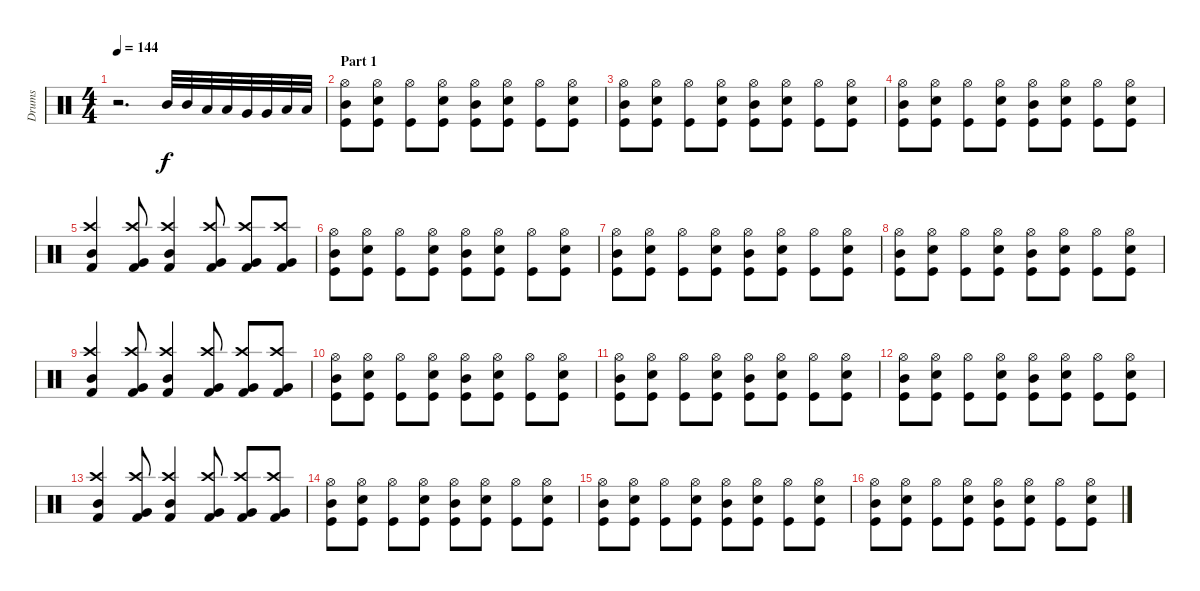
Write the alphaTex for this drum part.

\track ("Drums" "Drums") {instrument percussion}
\staff {score}
\articulation defaults
\ts (4 4)
\tempo 144
\clef neutral
\ks c
r.2{d dy f} "Mid Tom (hit)".32 "Mid Tom (hit)".32 "Low Tom (hit)".32 "Low Tom (hit)".32 "Very Low Tom (hit)".32 "Very Low Tom (hit)".32 "Low Floor Tom (hit)".32 "Low Floor Tom (hit)".32 |
\section ("" "Part 1")
("Hi-Hat (open)" "Kick (hit)" "Mid Tom (hit)").8 ("Hi-Hat (open)" "Kick (hit)" "Snare (hit) 2").8 ("Hi-Hat (open)" "Kick (hit)").8 ("Hi-Hat (open)" "Kick (hit)" "Snare (hit) 2").8 ("Hi-Hat (open)" "Kick (hit)" "Mid Tom (hit)").8 ("Hi-Hat (open)" "Kick (hit)" "Snare (hit) 2").8 ("Hi-Hat (open)" "Kick (hit)").8 ("Hi-Hat (open)" "Kick (hit)" "Snare (hit) 2").8 |
("Hi-Hat (open)" "Kick (hit)" "Mid Tom (hit)").8 ("Hi-Hat (open)" "Kick (hit)" "Snare (hit) 2").8 ("Hi-Hat (open)" "Kick (hit)").8 ("Hi-Hat (open)" "Kick (hit)" "Snare (hit) 2").8 ("Hi-Hat (open)" "Kick (hit)" "Mid Tom (hit)").8 ("Hi-Hat (open)" "Kick (hit)" "Snare (hit) 2").8 ("Hi-Hat (open)" "Kick (hit)").8 ("Hi-Hat (open)" "Kick (hit)" "Snare (hit) 2").8 |
("Hi-Hat (open)" "Kick (hit)" "Mid Tom (hit)").8 ("Hi-Hat (open)" "Kick (hit)" "Snare (hit) 2").8 ("Hi-Hat (open)" "Kick (hit)").8 ("Hi-Hat (open)" "Kick (hit)" "Snare (hit) 2").8 ("Hi-Hat (open)" "Kick (hit)" "Mid Tom (hit)").8 ("Hi-Hat (open)" "Kick (hit)" "Snare (hit) 2").8 ("Hi-Hat (open)" "Kick (hit)").8 ("Hi-Hat (open)" "Kick (hit)" "Snare (hit) 2").8 |
("Crash high (hit)" "Kick (hit) 2" "Mid Tom (hit)").4 ("Crash high (hit)" "Kick (hit) 2" "Very Low Tom (hit)").8 ("Crash high (hit)" "Kick (hit) 2" "Mid Tom (hit)").4 ("Crash high (hit)" "Kick (hit) 2" "Very Low Tom (hit)").8 ("Crash high (hit)" "Kick (hit) 2" "Very Low Tom (hit)").8 ("Crash high (hit)" "Kick (hit) 2" "Very Low Tom (hit)").8 |
("Hi-Hat (open)" "Kick (hit)" "Mid Tom (hit)").8 ("Hi-Hat (open)" "Kick (hit)" "Snare (hit) 2").8 ("Hi-Hat (open)" "Kick (hit)").8 ("Hi-Hat (open)" "Kick (hit)" "Snare (hit) 2").8 ("Hi-Hat (open)" "Kick (hit)" "Mid Tom (hit)").8 ("Hi-Hat (open)" "Kick (hit)" "Snare (hit) 2").8 ("Hi-Hat (open)" "Kick (hit)").8 ("Hi-Hat (open)" "Kick (hit)" "Snare (hit) 2").8 |
("Hi-Hat (open)" "Kick (hit)" "Mid Tom (hit)").8 ("Hi-Hat (open)" "Kick (hit)" "Snare (hit) 2").8 ("Hi-Hat (open)" "Kick (hit)").8 ("Hi-Hat (open)" "Kick (hit)" "Snare (hit) 2").8 ("Hi-Hat (open)" "Kick (hit)" "Mid Tom (hit)").8 ("Hi-Hat (open)" "Kick (hit)" "Snare (hit) 2").8 ("Hi-Hat (open)" "Kick (hit)").8 ("Hi-Hat (open)" "Kick (hit)" "Snare (hit) 2").8 |
("Hi-Hat (open)" "Kick (hit)" "Mid Tom (hit)").8 ("Hi-Hat (open)" "Kick (hit)" "Snare (hit) 2").8 ("Hi-Hat (open)" "Kick (hit)").8 ("Hi-Hat (open)" "Kick (hit)" "Snare (hit) 2").8 ("Hi-Hat (open)" "Kick (hit)" "Mid Tom (hit)").8 ("Hi-Hat (open)" "Kick (hit)" "Snare (hit) 2").8 ("Hi-Hat (open)" "Kick (hit)").8 ("Hi-Hat (open)" "Kick (hit)" "Snare (hit) 2").8 |
("Crash high (hit)" "Kick (hit) 2" "Mid Tom (hit)").4 ("Crash high (hit)" "Kick (hit) 2" "Very Low Tom (hit)").8 ("Crash high (hit)" "Kick (hit) 2" "Mid Tom (hit)").4 ("Crash high (hit)" "Kick (hit) 2" "Very Low Tom (hit)").8 ("Crash high (hit)" "Kick (hit) 2" "Very Low Tom (hit)").8 ("Crash high (hit)" "Kick (hit) 2" "Very Low Tom (hit)").8 |
("Hi-Hat (open)" "Kick (hit)" "Mid Tom (hit)").8 ("Hi-Hat (open)" "Kick (hit)" "Snare (hit) 2").8 ("Hi-Hat (open)" "Kick (hit)").8 ("Hi-Hat (open)" "Kick (hit)" "Snare (hit) 2").8 ("Hi-Hat (open)" "Kick (hit)" "Mid Tom (hit)").8 ("Hi-Hat (open)" "Kick (hit)" "Snare (hit) 2").8 ("Hi-Hat (open)" "Kick (hit)").8 ("Hi-Hat (open)" "Kick (hit)" "Snare (hit) 2").8 |
("Hi-Hat (open)" "Kick (hit)" "Mid Tom (hit)").8 ("Hi-Hat (open)" "Kick (hit)" "Snare (hit) 2").8 ("Hi-Hat (open)" "Kick (hit)").8 ("Hi-Hat (open)" "Kick (hit)" "Snare (hit) 2").8 ("Hi-Hat (open)" "Kick (hit)" "Mid Tom (hit)").8 ("Hi-Hat (open)" "Kick (hit)" "Snare (hit) 2").8 ("Hi-Hat (open)" "Kick (hit)").8 ("Hi-Hat (open)" "Kick (hit)" "Snare (hit) 2").8 |
("Hi-Hat (open)" "Kick (hit)" "Mid Tom (hit)").8 ("Hi-Hat (open)" "Kick (hit)" "Snare (hit) 2").8 ("Hi-Hat (open)" "Kick (hit)").8 ("Hi-Hat (open)" "Kick (hit)" "Snare (hit) 2").8 ("Hi-Hat (open)" "Kick (hit)" "Mid Tom (hit)").8 ("Hi-Hat (open)" "Kick (hit)" "Snare (hit) 2").8 ("Hi-Hat (open)" "Kick (hit)").8 ("Hi-Hat (open)" "Kick (hit)" "Snare (hit) 2").8 |
("Crash high (hit)" "Kick (hit) 2" "Mid Tom (hit)").4 ("Crash high (hit)" "Kick (hit) 2" "Very Low Tom (hit)").8 ("Crash high (hit)" "Kick (hit) 2" "Mid Tom (hit)").4 ("Crash high (hit)" "Kick (hit) 2" "Very Low Tom (hit)").8 ("Crash high (hit)" "Kick (hit) 2" "Very Low Tom (hit)").8 ("Crash high (hit)" "Kick (hit) 2" "Very Low Tom (hit)").8 |
("Hi-Hat (open)" "Kick (hit)" "Mid Tom (hit)").8 ("Hi-Hat (open)" "Kick (hit)" "Snare (hit) 2").8 ("Hi-Hat (open)" "Kick (hit)").8 ("Hi-Hat (open)" "Kick (hit)" "Snare (hit) 2").8 ("Hi-Hat (open)" "Kick (hit)" "Mid Tom (hit)").8 ("Hi-Hat (open)" "Kick (hit)" "Snare (hit) 2").8 ("Hi-Hat (open)" "Kick (hit)").8 ("Hi-Hat (open)" "Kick (hit)" "Snare (hit) 2").8 |
("Hi-Hat (open)" "Kick (hit)" "Mid Tom (hit)").8 ("Hi-Hat (open)" "Kick (hit)" "Snare (hit) 2").8 ("Hi-Hat (open)" "Kick (hit)").8 ("Hi-Hat (open)" "Kick (hit)" "Snare (hit) 2").8 ("Hi-Hat (open)" "Kick (hit)" "Mid Tom (hit)").8 ("Hi-Hat (open)" "Kick (hit)" "Snare (hit) 2").8 ("Hi-Hat (open)" "Kick (hit)").8 ("Hi-Hat (open)" "Kick (hit)" "Snare (hit) 2").8 |
("Hi-Hat (open)" "Kick (hit)" "Mid Tom (hit)").8 ("Hi-Hat (open)" "Kick (hit)" "Snare (hit) 2").8 ("Hi-Hat (open)" "Kick (hit)").8 ("Hi-Hat (open)" "Kick (hit)" "Snare (hit) 2").8 ("Hi-Hat (open)" "Kick (hit)" "Mid Tom (hit)").8 ("Hi-Hat (open)" "Kick (hit)" "Snare (hit) 2").8 ("Hi-Hat (open)" "Kick (hit)").8 ("Hi-Hat (open)" "Kick (hit)" "Snare (hit) 2").8
